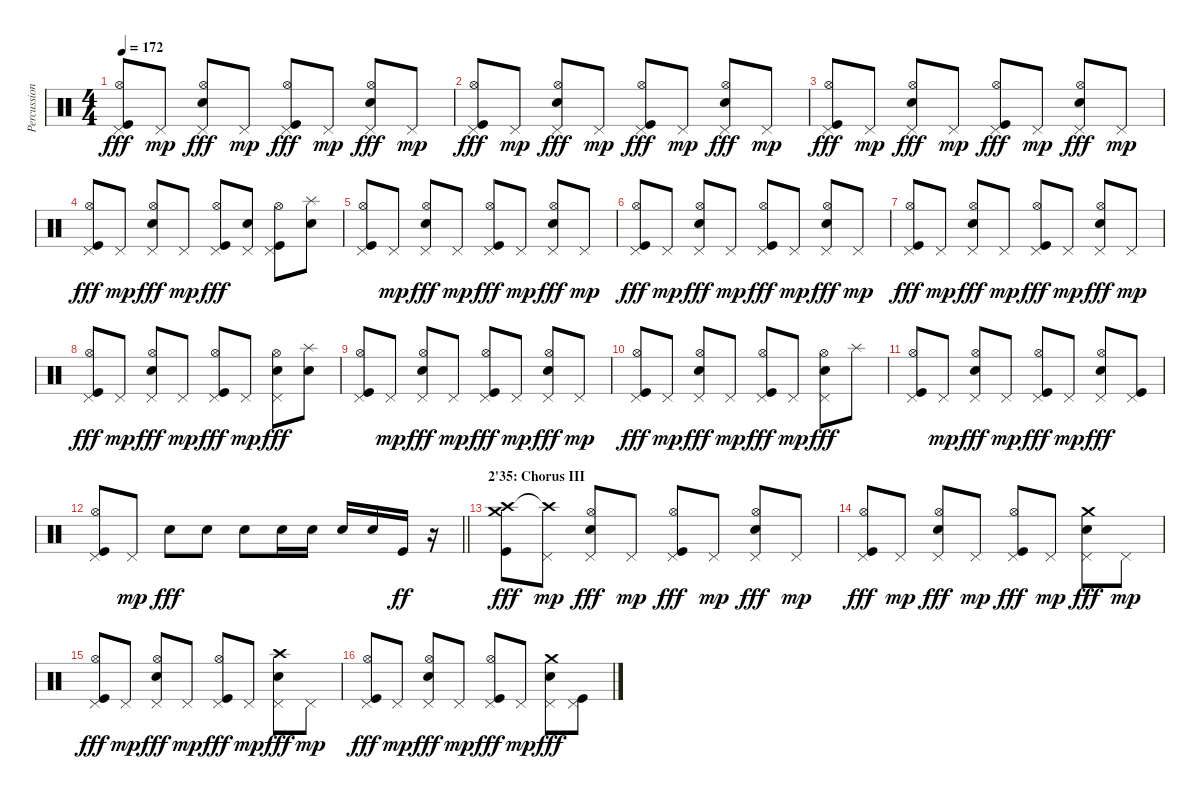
\track ("Percussion" "Percussion") {instrument percussion}
\staff {score}
\articulation defaults
\ts (4 4)
\tempo 172
\clef neutral
\ks c
("Pedal Hi-Hat (hit)" "Hi-Hat (open)" "Kick (hit)").8{dy fff} "Pedal Hi-Hat (hit)".8{dy mp} ("Pedal Hi-Hat (hit)" "Hi-Hat (open)" "Electric Snare (hit)").8{dy fff} "Pedal Hi-Hat (hit)".8{dy mp} ("Pedal Hi-Hat (hit)" "Hi-Hat (open)" "Kick (hit)").8{dy fff} "Pedal Hi-Hat (hit)".8{dy mp} ("Pedal Hi-Hat (hit)" "Hi-Hat (open)" "Electric Snare (hit)").8{dy fff} "Pedal Hi-Hat (hit)".8{dy mp} |
("Pedal Hi-Hat (hit)" "Hi-Hat (open)" "Kick (hit)").8{dy fff} "Pedal Hi-Hat (hit)".8{dy mp} ("Pedal Hi-Hat (hit)" "Hi-Hat (open)" "Electric Snare (hit)").8{dy fff} "Pedal Hi-Hat (hit)".8{dy mp} ("Pedal Hi-Hat (hit)" "Hi-Hat (open)" "Kick (hit)").8{dy fff} "Pedal Hi-Hat (hit)".8{dy mp} ("Pedal Hi-Hat (hit)" "Hi-Hat (open)" "Electric Snare (hit)").8{dy fff} "Pedal Hi-Hat (hit)".8{dy mp} |
("Pedal Hi-Hat (hit)" "Hi-Hat (open)" "Kick (hit)").8{dy fff} "Pedal Hi-Hat (hit)".8{dy mp} ("Pedal Hi-Hat (hit)" "Hi-Hat (open)" "Electric Snare (hit)").8{dy fff} "Pedal Hi-Hat (hit)".8{dy mp} ("Pedal Hi-Hat (hit)" "Hi-Hat (open)" "Kick (hit)").8{dy fff} "Pedal Hi-Hat (hit)".8{dy mp} ("Pedal Hi-Hat (hit)" "Hi-Hat (open)" "Electric Snare (hit)").8{dy fff} "Pedal Hi-Hat (hit)".8{dy mp} |
("Pedal Hi-Hat (hit)" "Hi-Hat (open)" "Kick (hit)").8{dy fff} "Pedal Hi-Hat (hit)".8{dy mp} ("Pedal Hi-Hat (hit)" "Hi-Hat (open)" "Electric Snare (hit)").8{dy fff} "Pedal Hi-Hat (hit)".8{dy mp} ("Pedal Hi-Hat (hit)" "Hi-Hat (open)" "Kick (hit)").8{dy fff} ("Pedal Hi-Hat (hit)" "Electric Snare (hit)").8 ("Pedal Hi-Hat (hit)" "Hi-Hat (open)" "Kick (hit)").8 ("Splash (hit)" "Electric Snare (hit)").8 |
("Pedal Hi-Hat (hit)" "Hi-Hat (open)" "Kick (hit)").8 "Pedal Hi-Hat (hit)".8{dy mp} ("Pedal Hi-Hat (hit)" "Hi-Hat (open)" "Electric Snare (hit)").8{dy fff} "Pedal Hi-Hat (hit)".8{dy mp} ("Pedal Hi-Hat (hit)" "Hi-Hat (open)" "Kick (hit)").8{dy fff} "Pedal Hi-Hat (hit)".8{dy mp} ("Pedal Hi-Hat (hit)" "Hi-Hat (open)" "Electric Snare (hit)").8{dy fff} "Pedal Hi-Hat (hit)".8{dy mp} |
("Pedal Hi-Hat (hit)" "Hi-Hat (open)" "Kick (hit)").8{dy fff} "Pedal Hi-Hat (hit)".8{dy mp} ("Pedal Hi-Hat (hit)" "Hi-Hat (open)" "Electric Snare (hit)").8{dy fff} "Pedal Hi-Hat (hit)".8{dy mp} ("Pedal Hi-Hat (hit)" "Hi-Hat (open)" "Kick (hit)").8{dy fff} "Pedal Hi-Hat (hit)".8{dy mp} ("Pedal Hi-Hat (hit)" "Hi-Hat (open)" "Electric Snare (hit)").8{dy fff} "Pedal Hi-Hat (hit)".8{dy mp} |
("Pedal Hi-Hat (hit)" "Hi-Hat (open)" "Kick (hit)").8{dy fff} "Pedal Hi-Hat (hit)".8{dy mp} ("Pedal Hi-Hat (hit)" "Hi-Hat (open)" "Electric Snare (hit)").8{dy fff} "Pedal Hi-Hat (hit)".8{dy mp} ("Pedal Hi-Hat (hit)" "Hi-Hat (open)" "Kick (hit)").8{dy fff} "Pedal Hi-Hat (hit)".8{dy mp} ("Pedal Hi-Hat (hit)" "Hi-Hat (open)" "Electric Snare (hit)").8{dy fff} "Pedal Hi-Hat (hit)".8{dy mp} |
("Pedal Hi-Hat (hit)" "Hi-Hat (open)" "Kick (hit)").8{dy fff} "Pedal Hi-Hat (hit)".8{dy mp} ("Pedal Hi-Hat (hit)" "Hi-Hat (open)" "Electric Snare (hit)").8{dy fff} "Pedal Hi-Hat (hit)".8{dy mp} ("Pedal Hi-Hat (hit)" "Hi-Hat (open)" "Kick (hit)").8{dy fff} "Pedal Hi-Hat (hit)".8{dy mp} ("Pedal Hi-Hat (hit)" "Hi-Hat (open)" "Electric Snare (hit)").8{dy fff} ("Splash (hit)" "Electric Snare (hit)").8 |
("Pedal Hi-Hat (hit)" "Hi-Hat (open)" "Kick (hit)").8 "Pedal Hi-Hat (hit)".8{dy mp} ("Pedal Hi-Hat (hit)" "Hi-Hat (open)" "Electric Snare (hit)").8{dy fff} "Pedal Hi-Hat (hit)".8{dy mp} ("Pedal Hi-Hat (hit)" "Hi-Hat (open)" "Kick (hit)").8{dy fff} "Pedal Hi-Hat (hit)".8{dy mp} ("Pedal Hi-Hat (hit)" "Hi-Hat (open)" "Electric Snare (hit)").8{dy fff} "Pedal Hi-Hat (hit)".8{dy mp} |
("Pedal Hi-Hat (hit)" "Hi-Hat (open)" "Kick (hit)").8{dy fff} "Pedal Hi-Hat (hit)".8{dy mp} ("Pedal Hi-Hat (hit)" "Hi-Hat (open)" "Electric Snare (hit)").8{dy fff} "Pedal Hi-Hat (hit)".8{dy mp} ("Pedal Hi-Hat (hit)" "Hi-Hat (open)" "Kick (hit)").8{dy fff} "Pedal Hi-Hat (hit)".8{dy mp} ("Pedal Hi-Hat (hit)" "Hi-Hat (open)" "Electric Snare (hit)").8{dy fff} "Splash (hit)".8 |
("Pedal Hi-Hat (hit)" "Hi-Hat (open)" "Kick (hit)").8 "Pedal Hi-Hat (hit)".8{dy mp} ("Pedal Hi-Hat (hit)" "Hi-Hat (open)" "Electric Snare (hit)").8{dy fff} "Pedal Hi-Hat (hit)".8{dy mp} ("Pedal Hi-Hat (hit)" "Hi-Hat (open)" "Kick (hit)").8{dy fff} "Pedal Hi-Hat (hit)".8{dy mp} ("Pedal Hi-Hat (hit)" "Hi-Hat (open)" "Electric Snare (hit)").8{dy fff} ("Pedal Hi-Hat (hit)" "Kick (hit)").8 |
\barLineRight lightlight
("Pedal Hi-Hat (hit)" "Hi-Hat (open)" "Kick (hit)").8 "Pedal Hi-Hat (hit)".8{dy mp} "Electric Snare (hit)".8{dy fff} "Electric Snare (hit)".8 "Electric Snare (hit)".8 "Electric Snare (hit)".16 "Electric Snare (hit)".16 "Electric Snare (hit)".16 "Electric Snare (hit)".16 "Kick (hit)".16{dy ff} r.16 |
\section ("" "2'35: Chorus III")
("Crash medium (hit)" "Crash high (hit)" "Kick (hit)").8{dy fff} ("Pedal Hi-Hat (hit)" "Crash high (hit)"{t}).8{dy mp} ("Pedal Hi-Hat (hit)" "Hi-Hat (open)" "Electric Snare (hit)").8{dy fff} "Pedal Hi-Hat (hit)".8{dy mp} ("Pedal Hi-Hat (hit)" "Hi-Hat (open)" "Kick (hit)").8{dy fff} "Pedal Hi-Hat (hit)".8{dy mp} ("Pedal Hi-Hat (hit)" "Hi-Hat (open)" "Electric Snare (hit)").8{dy fff} "Pedal Hi-Hat (hit)".8{dy mp} |
("Pedal Hi-Hat (hit)" "Hi-Hat (open)" "Kick (hit)").8{dy fff} "Pedal Hi-Hat (hit)".8{dy mp} ("Pedal Hi-Hat (hit)" "Hi-Hat (open)" "Electric Snare (hit)").8{dy fff} "Pedal Hi-Hat (hit)".8{dy mp} ("Pedal Hi-Hat (hit)" "Hi-Hat (open)" "Kick (hit)").8{dy fff} "Pedal Hi-Hat (hit)".8{dy mp} ("Pedal Hi-Hat (hit)" "Crash medium (hit)" "Electric Snare (hit)").8{dy fff} "Pedal Hi-Hat (hit)".8{dy mp} |
("Pedal Hi-Hat (hit)" "Hi-Hat (open)" "Kick (hit)").8{dy fff} "Pedal Hi-Hat (hit)".8{dy mp} ("Pedal Hi-Hat (hit)" "Hi-Hat (open)" "Electric Snare (hit)").8{dy fff} "Pedal Hi-Hat (hit)".8{dy mp} ("Pedal Hi-Hat (hit)" "Hi-Hat (open)" "Kick (hit)").8{dy fff} "Pedal Hi-Hat (hit)".8{dy mp} ("Pedal Hi-Hat (hit)" "Crash high (hit)" "Electric Snare (hit)").8{dy fff} "Pedal Hi-Hat (hit)".8{dy mp} |
("Pedal Hi-Hat (hit)" "Hi-Hat (open)" "Kick (hit)").8{dy fff} "Pedal Hi-Hat (hit)".8{dy mp} ("Pedal Hi-Hat (hit)" "Hi-Hat (open)" "Electric Snare (hit)").8{dy fff} "Pedal Hi-Hat (hit)".8{dy mp} ("Pedal Hi-Hat (hit)" "Hi-Hat (open)" "Kick (hit)").8{dy fff} "Pedal Hi-Hat (hit)".8{dy mp} ("Pedal Hi-Hat (hit)" "Crash medium (hit)" "Electric Snare (hit)").8{dy fff} ("Pedal Hi-Hat (hit)" "Kick (hit)").8
